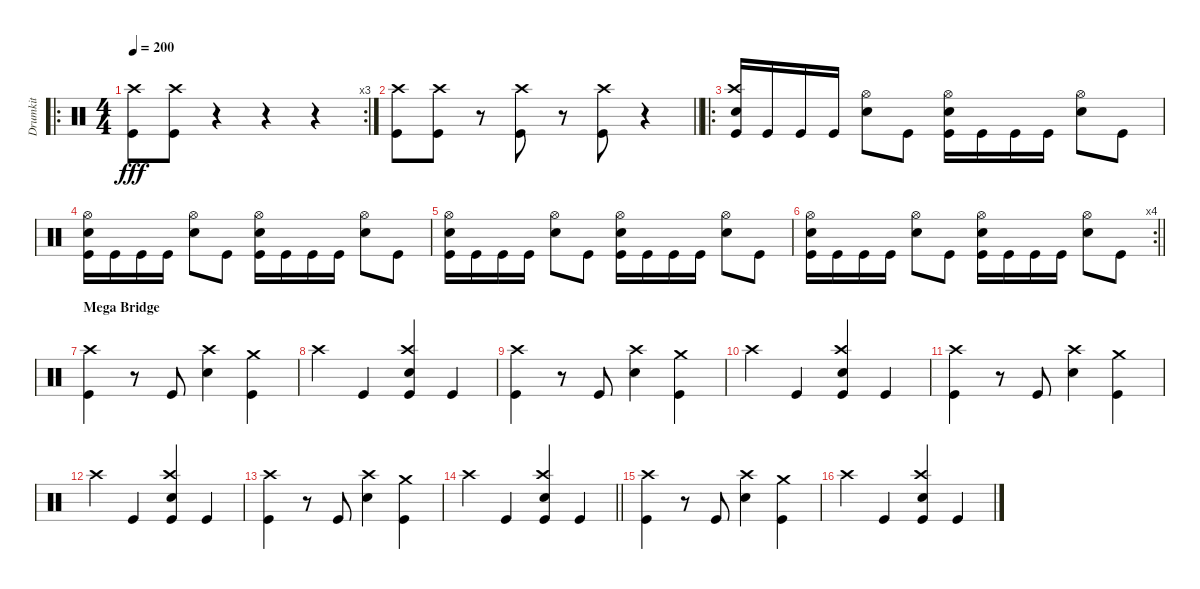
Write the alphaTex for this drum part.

\track ("Drumkit" "Drumkit") {instrument percussion}
\staff {score}
\articulation defaults
\ro
\rc 3
\ts (4 4)
\tempo 200
\clef neutral
\ks c
("Kick (hit)" "Crash high (hit)").8{dy fff} ("Kick (hit)" "Crash high (hit)").8 r.4 r.4 r.4 |
\barLineRight lightlight
("Kick (hit)" "Crash high (hit)").8 ("Kick (hit)" "Crash high (hit)").8 r.8 ("Kick (hit)" "Crash high (hit)").8 r.8 ("Kick (hit)" "Crash high (hit)").8 r.4 |
\ro
("Kick (hit)" "Snare (hit) 2" "Crash high (hit)").16 "Kick (hit)".16 "Kick (hit)".16 "Kick (hit)".16 ("Hi-Hat (open)" "Snare (hit) 2").8 "Kick (hit)".8 ("Kick (hit)" "Snare (hit) 2" "Hi-Hat (open)").16 "Kick (hit)".16 "Kick (hit)".16 "Kick (hit)".16 ("Hi-Hat (open)" "Snare (hit) 2").8 "Kick (hit)".8 |
("Kick (hit)" "Snare (hit) 2" "Hi-Hat (open)").16 "Kick (hit)".16 "Kick (hit)".16 "Kick (hit)".16 ("Hi-Hat (open)" "Snare (hit) 2").8 "Kick (hit)".8 ("Kick (hit)" "Snare (hit) 2" "Hi-Hat (open)").16 "Kick (hit)".16 "Kick (hit)".16 "Kick (hit)".16 ("Hi-Hat (open)" "Snare (hit) 2").8 "Kick (hit)".8 |
("Kick (hit)" "Snare (hit) 2" "Hi-Hat (open)").16 "Kick (hit)".16 "Kick (hit)".16 "Kick (hit)".16 ("Hi-Hat (open)" "Snare (hit) 2").8 "Kick (hit)".8 ("Kick (hit)" "Snare (hit) 2" "Hi-Hat (open)").16 "Kick (hit)".16 "Kick (hit)".16 "Kick (hit)".16 ("Hi-Hat (open)" "Snare (hit) 2").8 "Kick (hit)".8 |
\rc 4
\barLineRight lightlight
("Kick (hit)" "Snare (hit) 2" "Hi-Hat (open)").16 "Kick (hit)".16 "Kick (hit)".16 "Kick (hit)".16 ("Hi-Hat (open)" "Snare (hit) 2").8 "Kick (hit)".8 ("Kick (hit)" "Snare (hit) 2" "Hi-Hat (open)").16 "Kick (hit)".16 "Kick (hit)".16 "Kick (hit)".16 ("Hi-Hat (open)" "Snare (hit) 2").8 "Kick (hit)".8 |
\section ("" "Mega Bridge")
("Kick (hit)" "Crash high (hit)").4 r.8 "Kick (hit)".8 ("Crash high (hit)" "Snare (hit) 2").4 ("Crash medium (hit)" "Kick (hit)").4 |
"Crash high (hit)".4 "Kick (hit)".4 ("Snare (hit) 2" "Crash high (hit)" "Kick (hit)").4 "Kick (hit)".4 |
("Kick (hit)" "Crash high (hit)").4 r.8 "Kick (hit)".8 ("Crash high (hit)" "Snare (hit) 2").4 ("Crash medium (hit)" "Kick (hit)").4 |
"Crash high (hit)".4 "Kick (hit)".4 ("Snare (hit) 2" "Crash high (hit)" "Kick (hit)").4 "Kick (hit)".4 |
("Kick (hit)" "Crash high (hit)").4 r.8 "Kick (hit)".8 ("Crash high (hit)" "Snare (hit) 2").4 ("Crash medium (hit)" "Kick (hit)").4 |
"Crash high (hit)".4 "Kick (hit)".4 ("Snare (hit) 2" "Crash high (hit)" "Kick (hit)").4 "Kick (hit)".4 |
("Kick (hit)" "Crash high (hit)").4 r.8 "Kick (hit)".8 ("Crash high (hit)" "Snare (hit) 2").4 ("Crash medium (hit)" "Kick (hit)").4 |
\barLineRight lightlight "Crash high (hit)".4 "Kick (hit)".4
("Snare (hit) 2" "Crash high (hit)" "Kick (hit)").4 "Kick (hit)".4 |
("Kick (hit)" "Crash high (hit)").4 r.8 "Kick (hit)".8 ("Crash high (hit)" "Snare (hit) 2").4 ("Crash medium (hit)" "Kick (hit)").4 |
"Crash high (hit)".4 "Kick (hit)".4 ("Snare (hit) 2" "Crash high (hit)" "Kick (hit)").4 "Kick (hit)".4
